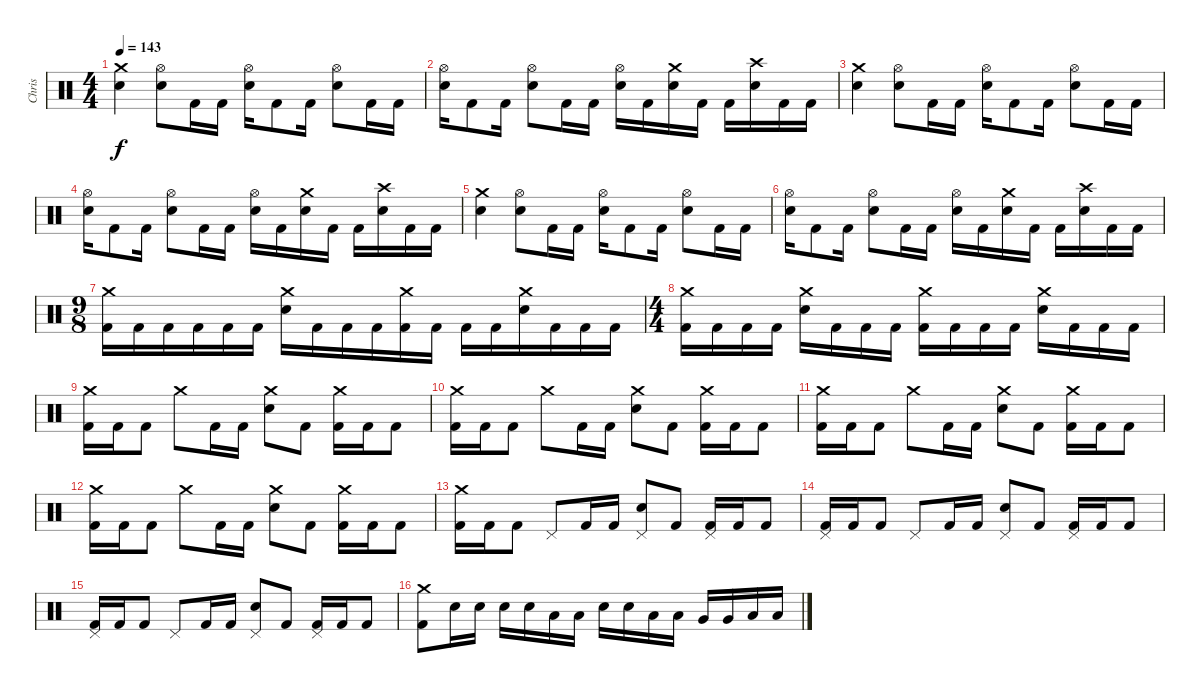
\track ("Chris" "Chris") {instrument percussion}
\staff {score}
\articulation defaults
\ts (4 4)
\tempo 143
\clef neutral
\ks c
("Crash medium (hit)" "Electric Snare (hit)").4{dy f} ("Hi-Hat (open)" "Electric Snare (hit)").8 "Kick (hit) 2".16 "Kick (hit) 2".16 ("Hi-Hat (open)" "Electric Snare (hit)").16 "Kick (hit) 2".8 "Kick (hit) 2".16 ("Hi-Hat (open)" "Electric Snare (hit)").8 "Kick (hit) 2".16 "Kick (hit) 2".16 |
("Hi-Hat (open)" "Electric Snare (hit)").16 "Kick (hit) 2".8 "Kick (hit) 2".16 ("Hi-Hat (open)" "Electric Snare (hit)").8 "Kick (hit) 2".16 "Kick (hit) 2".16 ("Hi-Hat (open)" "Electric Snare (hit)").16 "Kick (hit) 2".16 ("Crash medium (hit)" "Electric Snare (hit)").16 "Kick (hit) 2".16 "Kick (hit) 2".16 ("Crash high (hit)" "Electric Snare (hit)").16 "Kick (hit) 2".16 "Kick (hit) 2".16 |
("Crash medium (hit)" "Electric Snare (hit)").4 ("Hi-Hat (open)" "Electric Snare (hit)").8 "Kick (hit) 2".16 "Kick (hit) 2".16 ("Hi-Hat (open)" "Electric Snare (hit)").16 "Kick (hit) 2".8 "Kick (hit) 2".16 ("Hi-Hat (open)" "Electric Snare (hit)").8 "Kick (hit) 2".16 "Kick (hit) 2".16 |
("Hi-Hat (open)" "Electric Snare (hit)").16 "Kick (hit) 2".8 "Kick (hit) 2".16 ("Hi-Hat (open)" "Electric Snare (hit)").8 "Kick (hit) 2".16 "Kick (hit) 2".16 ("Hi-Hat (open)" "Electric Snare (hit)").16 "Kick (hit) 2".16 ("Crash medium (hit)" "Electric Snare (hit)").16 "Kick (hit) 2".16 "Kick (hit) 2".16 ("Crash high (hit)" "Electric Snare (hit)").16 "Kick (hit) 2".16 "Kick (hit) 2".16 |
("Crash medium (hit)" "Electric Snare (hit)").4 ("Hi-Hat (open)" "Electric Snare (hit)").8 "Kick (hit) 2".16 "Kick (hit) 2".16 ("Hi-Hat (open)" "Electric Snare (hit)").16 "Kick (hit) 2".8 "Kick (hit) 2".16 ("Hi-Hat (open)" "Electric Snare (hit)").8 "Kick (hit) 2".16 "Kick (hit) 2".16 |
("Hi-Hat (open)" "Electric Snare (hit)").16 "Kick (hit) 2".8 "Kick (hit) 2".16 ("Hi-Hat (open)" "Electric Snare (hit)").8 "Kick (hit) 2".16 "Kick (hit) 2".16 ("Hi-Hat (open)" "Electric Snare (hit)").16 "Kick (hit) 2".16 ("Crash medium (hit)" "Electric Snare (hit)").16 "Kick (hit) 2".16 "Kick (hit) 2".16 ("Crash high (hit)" "Electric Snare (hit)").16 "Kick (hit) 2".16 "Kick (hit) 2".16 |
\ts (9 8)
("Crash medium (hit)" "Kick (hit) 2").16 "Kick (hit) 2".16 "Kick (hit) 2".16 "Kick (hit) 2".16 "Kick (hit) 2".16 "Kick (hit) 2".16 ("Crash medium (hit)" "Electric Snare (hit)").16 "Kick (hit) 2".16 "Kick (hit) 2".16 "Kick (hit) 2".16 ("Crash medium (hit)" "Kick (hit) 2").16 "Kick (hit) 2".16 "Kick (hit) 2".16 "Kick (hit) 2".16 ("Crash medium (hit)" "Electric Snare (hit)").16 "Kick (hit) 2".16 "Kick (hit) 2".16 "Kick (hit) 2".16 |
\ts (4 4)
("Crash medium (hit)" "Kick (hit) 2").16 "Kick (hit) 2".16 "Kick (hit) 2".16 "Kick (hit) 2".16 ("Crash medium (hit)" "Electric Snare (hit)").16 "Kick (hit) 2".16 "Kick (hit) 2".16 "Kick (hit) 2".16 ("Crash medium (hit)" "Kick (hit) 2").16 "Kick (hit) 2".16 "Kick (hit) 2".16 "Kick (hit) 2".16 ("Crash medium (hit)" "Electric Snare (hit)").16 "Kick (hit) 2".16 "Kick (hit) 2".16 "Kick (hit) 2".16 |
("Crash medium (hit)" "Kick (hit) 2").16 "Kick (hit) 2".16 "Kick (hit) 2".8 "Crash medium (hit)".8 "Kick (hit) 2".16 "Kick (hit) 2".16 ("Crash medium (hit)" "Electric Snare (hit)").8 "Kick (hit) 2".8 ("Crash medium (hit)" "Kick (hit) 2").16 "Kick (hit) 2".16 "Kick (hit) 2".8 |
("Crash medium (hit)" "Kick (hit) 2").16 "Kick (hit) 2".16 "Kick (hit) 2".8 "Crash medium (hit)".8 "Kick (hit) 2".16 "Kick (hit) 2".16 ("Crash medium (hit)" "Electric Snare (hit)").8 "Kick (hit) 2".8 ("Crash medium (hit)" "Kick (hit) 2").16 "Kick (hit) 2".16 "Kick (hit) 2".8 |
("Crash medium (hit)" "Kick (hit) 2").16 "Kick (hit) 2".16 "Kick (hit) 2".8 "Crash medium (hit)".8 "Kick (hit) 2".16 "Kick (hit) 2".16 ("Crash medium (hit)" "Electric Snare (hit)").8 "Kick (hit) 2".8 ("Crash medium (hit)" "Kick (hit) 2").16 "Kick (hit) 2".16 "Kick (hit) 2".8 |
("Crash medium (hit)" "Kick (hit) 2").16 "Kick (hit) 2".16 "Kick (hit) 2".8 "Crash medium (hit)".8 "Kick (hit) 2".16 "Kick (hit) 2".16 ("Crash medium (hit)" "Electric Snare (hit)").8 "Kick (hit) 2".8 ("Crash medium (hit)" "Kick (hit) 2").16 "Kick (hit) 2".16 "Kick (hit) 2".8 |
("Crash medium (hit)" "Kick (hit) 2").16 "Kick (hit) 2".16 "Kick (hit) 2".8 "Pedal Hi-Hat (hit)".8 "Kick (hit) 2".16 "Kick (hit) 2".16 ("Pedal Hi-Hat (hit)" "Electric Snare (hit)").8 "Kick (hit) 2".8 ("Pedal Hi-Hat (hit)" "Kick (hit) 2").16 "Kick (hit) 2".16 "Kick (hit) 2".8 |
("Pedal Hi-Hat (hit)" "Kick (hit) 2").16 "Kick (hit) 2".16 "Kick (hit) 2".8 "Pedal Hi-Hat (hit)".8 "Kick (hit) 2".16 "Kick (hit) 2".16 ("Pedal Hi-Hat (hit)" "Electric Snare (hit)").8 "Kick (hit) 2".8 ("Pedal Hi-Hat (hit)" "Kick (hit) 2").16 "Kick (hit) 2".16 "Kick (hit) 2".8 |
("Pedal Hi-Hat (hit)" "Kick (hit) 2").16 "Kick (hit) 2".16 "Kick (hit) 2".8 "Pedal Hi-Hat (hit)".8 "Kick (hit) 2".16 "Kick (hit) 2".16 ("Pedal Hi-Hat (hit)" "Electric Snare (hit)").8 "Kick (hit) 2".8 ("Pedal Hi-Hat (hit)" "Kick (hit) 2").16 "Kick (hit) 2".16 "Kick (hit) 2".8 |
("Crash medium (hit)" "Kick (hit) 2").8 "Electric Snare (hit)".16 "Electric Snare (hit)".16 "Electric Snare (hit)".16 "Electric Snare (hit)".16 "Low Tom (hit)".16 "Low Tom (hit)".16 "Electric Snare (hit)".16 "Electric Snare (hit)".16 "Low Tom (hit)".16 "Low Tom (hit)".16 "Very Low Tom (hit)".16 "Very Low Tom (hit)".16 "Low Floor Tom (hit)".16 "Low Floor Tom (hit)".16
